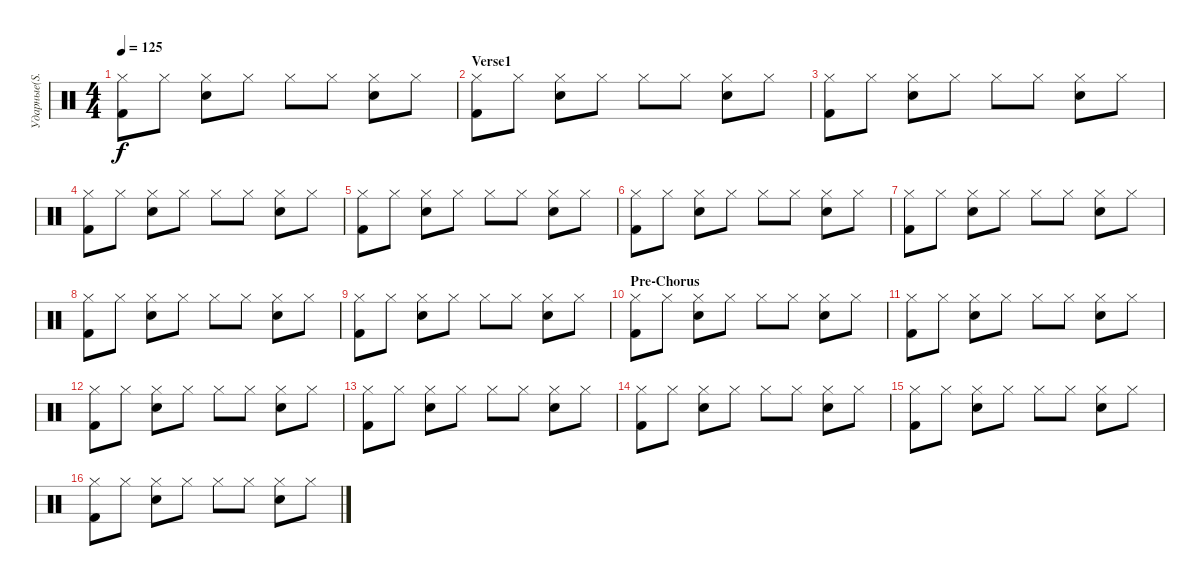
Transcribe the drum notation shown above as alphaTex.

\track ("Ударные(S. Travis)" "Ударные(S.") {instrument percussion}
\staff {score}
\articulation defaults
\ts (4 4)
\tempo 125
\clef neutral
\ks c
("Hi-Hat (closed)" "Kick (hit) 2").8{dy f} "Hi-Hat (closed)".8 ("Hi-Hat (closed)" "Snare (hit) 2").8 "Hi-Hat (closed)".8 "Hi-Hat (closed)".8 "Hi-Hat (closed)".8 ("Hi-Hat (closed)" "Snare (hit) 2").8 "Hi-Hat (closed)".8 |
\section ("" "Verse1")
("Hi-Hat (closed)" "Kick (hit) 2").8 "Hi-Hat (closed)".8 ("Hi-Hat (closed)" "Snare (hit) 2").8 "Hi-Hat (closed)".8 "Hi-Hat (closed)".8 "Hi-Hat (closed)".8 ("Hi-Hat (closed)" "Snare (hit) 2").8 "Hi-Hat (closed)".8 |
("Hi-Hat (closed)" "Kick (hit) 2").8 "Hi-Hat (closed)".8 ("Hi-Hat (closed)" "Snare (hit) 2").8 "Hi-Hat (closed)".8 "Hi-Hat (closed)".8 "Hi-Hat (closed)".8 ("Hi-Hat (closed)" "Snare (hit) 2").8 "Hi-Hat (closed)".8 |
("Hi-Hat (closed)" "Kick (hit) 2").8 "Hi-Hat (closed)".8 ("Hi-Hat (closed)" "Snare (hit) 2").8 "Hi-Hat (closed)".8 "Hi-Hat (closed)".8 "Hi-Hat (closed)".8 ("Hi-Hat (closed)" "Snare (hit) 2").8 "Hi-Hat (closed)".8 |
("Hi-Hat (closed)" "Kick (hit) 2").8 "Hi-Hat (closed)".8 ("Hi-Hat (closed)" "Snare (hit) 2").8 "Hi-Hat (closed)".8 "Hi-Hat (closed)".8 "Hi-Hat (closed)".8 ("Hi-Hat (closed)" "Snare (hit) 2").8 "Hi-Hat (closed)".8 |
("Hi-Hat (closed)" "Kick (hit) 2").8 "Hi-Hat (closed)".8 ("Hi-Hat (closed)" "Snare (hit) 2").8 "Hi-Hat (closed)".8 "Hi-Hat (closed)".8 "Hi-Hat (closed)".8 ("Hi-Hat (closed)" "Snare (hit) 2").8 "Hi-Hat (closed)".8 |
("Hi-Hat (closed)" "Kick (hit) 2").8 "Hi-Hat (closed)".8 ("Hi-Hat (closed)" "Snare (hit) 2").8 "Hi-Hat (closed)".8 "Hi-Hat (closed)".8 "Hi-Hat (closed)".8 ("Hi-Hat (closed)" "Snare (hit) 2").8 "Hi-Hat (closed)".8 |
("Hi-Hat (closed)" "Kick (hit) 2").8 "Hi-Hat (closed)".8 ("Hi-Hat (closed)" "Snare (hit) 2").8 "Hi-Hat (closed)".8 "Hi-Hat (closed)".8 "Hi-Hat (closed)".8 ("Hi-Hat (closed)" "Snare (hit) 2").8 "Hi-Hat (closed)".8 |
("Hi-Hat (closed)" "Kick (hit) 2").8 "Hi-Hat (closed)".8 ("Hi-Hat (closed)" "Snare (hit) 2").8 "Hi-Hat (closed)".8 "Hi-Hat (closed)".8 "Hi-Hat (closed)".8 ("Hi-Hat (closed)" "Snare (hit) 2").8 "Hi-Hat (closed)".8 |
\section ("" "Pre-Chorus")
("Hi-Hat (closed)" "Kick (hit) 2").8 "Hi-Hat (closed)".8 ("Hi-Hat (closed)" "Snare (hit) 2").8 "Hi-Hat (closed)".8 "Hi-Hat (closed)".8 "Hi-Hat (closed)".8 ("Hi-Hat (closed)" "Snare (hit) 2").8 "Hi-Hat (closed)".8 |
("Hi-Hat (closed)" "Kick (hit) 2").8 "Hi-Hat (closed)".8 ("Hi-Hat (closed)" "Snare (hit) 2").8 "Hi-Hat (closed)".8 "Hi-Hat (closed)".8 "Hi-Hat (closed)".8 ("Hi-Hat (closed)" "Snare (hit) 2").8 "Hi-Hat (closed)".8 |
("Hi-Hat (closed)" "Kick (hit) 2").8 "Hi-Hat (closed)".8 ("Hi-Hat (closed)" "Snare (hit) 2").8 "Hi-Hat (closed)".8 "Hi-Hat (closed)".8 "Hi-Hat (closed)".8 ("Hi-Hat (closed)" "Snare (hit) 2").8 "Hi-Hat (closed)".8 |
("Hi-Hat (closed)" "Kick (hit) 2").8 "Hi-Hat (closed)".8 ("Hi-Hat (closed)" "Snare (hit) 2").8 "Hi-Hat (closed)".8 "Hi-Hat (closed)".8 "Hi-Hat (closed)".8 ("Hi-Hat (closed)" "Snare (hit) 2").8 "Hi-Hat (closed)".8 |
("Hi-Hat (closed)" "Kick (hit) 2").8 "Hi-Hat (closed)".8 ("Hi-Hat (closed)" "Snare (hit) 2").8 "Hi-Hat (closed)".8 "Hi-Hat (closed)".8 "Hi-Hat (closed)".8 ("Hi-Hat (closed)" "Snare (hit) 2").8 "Hi-Hat (closed)".8 |
("Hi-Hat (closed)" "Kick (hit) 2").8 "Hi-Hat (closed)".8 ("Hi-Hat (closed)" "Snare (hit) 2").8 "Hi-Hat (closed)".8 "Hi-Hat (closed)".8 "Hi-Hat (closed)".8 ("Hi-Hat (closed)" "Snare (hit) 2").8 "Hi-Hat (closed)".8 |
("Hi-Hat (closed)" "Kick (hit) 2").8 "Hi-Hat (closed)".8 ("Hi-Hat (closed)" "Snare (hit) 2").8 "Hi-Hat (closed)".8 "Hi-Hat (closed)".8 "Hi-Hat (closed)".8 ("Hi-Hat (closed)" "Snare (hit) 2").8 "Hi-Hat (closed)".8
